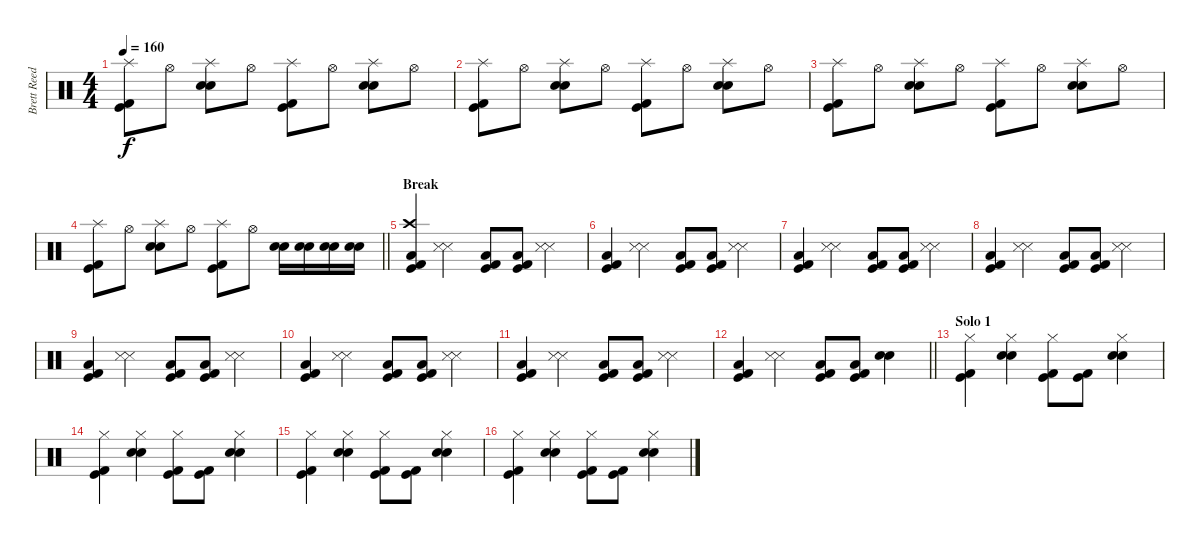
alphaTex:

\track ("Brett Reed" "Brett Reed") {instrument percussion}
\staff {score}
\articulation defaults
\ts (4 4)
\tempo 160
\clef neutral
\ks c
("Splash (hit)" "Kick (hit) 2" "Kick (hit)").8{dy f} "Hi-Hat (open)".8 ("Splash (hit)" "Electric Snare (hit)" "Snare (hit) 2").8 "Hi-Hat (open)".8 ("Splash (hit)" "Kick (hit) 2" "Kick (hit)").8 "Hi-Hat (open)".8 ("Splash (hit)" "Electric Snare (hit)" "Snare (hit) 2").8 "Hi-Hat (open)".8 |
("Splash (hit)" "Kick (hit) 2" "Kick (hit)").8 "Hi-Hat (open)".8 ("Splash (hit)" "Electric Snare (hit)" "Snare (hit) 2").8 "Hi-Hat (open)".8 ("Splash (hit)" "Kick (hit) 2" "Kick (hit)").8 "Hi-Hat (open)".8 ("Splash (hit)" "Electric Snare (hit)" "Snare (hit) 2").8 "Hi-Hat (open)".8 |
("Splash (hit)" "Kick (hit) 2" "Kick (hit)").8 "Hi-Hat (open)".8 ("Splash (hit)" "Electric Snare (hit)" "Snare (hit) 2").8 "Hi-Hat (open)".8 ("Splash (hit)" "Kick (hit) 2" "Kick (hit)").8 "Hi-Hat (open)".8 ("Splash (hit)" "Electric Snare (hit)" "Snare (hit) 2").8 "Hi-Hat (open)".8 |
\barLineRight lightlight
("Splash (hit)" "Kick (hit) 2" "Kick (hit)").8 "Hi-Hat (open)".8 ("Splash (hit)" "Electric Snare (hit)" "Snare (hit) 2").8 "Hi-Hat (open)".8 ("Splash (hit)" "Kick (hit) 2" "Kick (hit)").8 "Hi-Hat (open)".8 ("Electric Snare (hit)" "Snare (hit) 2").16 ("Electric Snare (hit)" "Snare (hit) 2").16 ("Electric Snare (hit)" "Snare (hit) 2").16 ("Electric Snare (hit)" "Snare (hit) 2").16 |
\section ("" "Break")
("Crash high (hit)" "Low Tom (hit)" "Kick (hit) 2" "Kick (hit)").4 ("Snare (side stick) 3" "Snare (side stick) 3").4 ("Low Tom (hit)" "Kick (hit) 2" "Kick (hit)").8 ("Low Tom (hit)" "Kick (hit) 2" "Kick (hit)").8 ("Snare (side stick) 3" "Snare (side stick) 3").4 |
("Low Tom (hit)" "Kick (hit) 2" "Kick (hit)").4 ("Snare (side stick) 3" "Snare (side stick) 3").4 ("Low Tom (hit)" "Kick (hit) 2" "Kick (hit)").8 ("Low Tom (hit)" "Kick (hit) 2" "Kick (hit)").8 ("Snare (side stick) 3" "Snare (side stick) 3").4 |
("Low Tom (hit)" "Kick (hit) 2" "Kick (hit)").4 ("Snare (side stick) 3" "Snare (side stick) 3").4 ("Low Tom (hit)" "Kick (hit) 2" "Kick (hit)").8 ("Low Tom (hit)" "Kick (hit) 2" "Kick (hit)").8 ("Snare (side stick) 3" "Snare (side stick) 3").4 |
("Low Tom (hit)" "Kick (hit) 2" "Kick (hit)").4 ("Snare (side stick) 3" "Snare (side stick) 3").4 ("Low Tom (hit)" "Kick (hit) 2" "Kick (hit)").8 ("Low Tom (hit)" "Kick (hit) 2" "Kick (hit)").8 ("Snare (side stick) 3" "Snare (side stick) 3").4 |
("Low Tom (hit)" "Kick (hit) 2" "Kick (hit)").4 ("Snare (side stick) 3" "Snare (side stick) 3").4 ("Low Tom (hit)" "Kick (hit) 2" "Kick (hit)").8 ("Low Tom (hit)" "Kick (hit) 2" "Kick (hit)").8 ("Snare (side stick) 3" "Snare (side stick) 3").4 |
("Low Tom (hit)" "Kick (hit) 2" "Kick (hit)").4 ("Snare (side stick) 3" "Snare (side stick) 3").4 ("Low Tom (hit)" "Kick (hit) 2" "Kick (hit)").8 ("Low Tom (hit)" "Kick (hit) 2" "Kick (hit)").8 ("Snare (side stick) 3" "Snare (side stick) 3").4 |
("Low Tom (hit)" "Kick (hit) 2" "Kick (hit)").4 ("Snare (side stick) 3" "Snare (side stick) 3").4 ("Low Tom (hit)" "Kick (hit) 2" "Kick (hit)").8 ("Low Tom (hit)" "Kick (hit) 2" "Kick (hit)").8 ("Snare (side stick) 3" "Snare (side stick) 3").4 |
\barLineRight lightlight
("Low Tom (hit)" "Kick (hit) 2" "Kick (hit)").4 ("Snare (side stick) 3" "Snare (side stick) 3").4 ("Low Tom (hit)" "Kick (hit) 2" "Kick (hit)").8 ("Low Tom (hit)" "Kick (hit) 2" "Kick (hit)").8 ("Electric Snare (hit)" "Snare (hit) 2").4 |
\section ("" "Solo 1")
("Hi-Hat (closed)" "Kick (hit) 2" "Kick (hit)").4 ("Hi-Hat (closed)" "Electric Snare (hit)" "Snare (hit) 2").4 ("Hi-Hat (closed)" "Kick (hit) 2" "Kick (hit)").8 ("Kick (hit) 2" "Kick (hit)").8 ("Hi-Hat (closed)" "Electric Snare (hit)" "Snare (hit) 2").4 |
("Hi-Hat (closed)" "Kick (hit) 2" "Kick (hit)").4 ("Hi-Hat (closed)" "Electric Snare (hit)" "Snare (hit) 2").4 ("Hi-Hat (closed)" "Kick (hit) 2" "Kick (hit)").8 ("Kick (hit) 2" "Kick (hit)").8 ("Hi-Hat (closed)" "Electric Snare (hit)" "Snare (hit) 2").4 |
("Hi-Hat (closed)" "Kick (hit) 2" "Kick (hit)").4 ("Hi-Hat (closed)" "Electric Snare (hit)" "Snare (hit) 2").4 ("Hi-Hat (closed)" "Kick (hit) 2" "Kick (hit)").8 ("Kick (hit) 2" "Kick (hit)").8 ("Hi-Hat (closed)" "Electric Snare (hit)" "Snare (hit) 2").4 |
("Hi-Hat (closed)" "Kick (hit) 2" "Kick (hit)").4 ("Hi-Hat (closed)" "Electric Snare (hit)" "Snare (hit) 2").4 ("Hi-Hat (closed)" "Kick (hit) 2" "Kick (hit)").8 ("Kick (hit) 2" "Kick (hit)").8 ("Hi-Hat (closed)" "Electric Snare (hit)" "Snare (hit) 2").4
